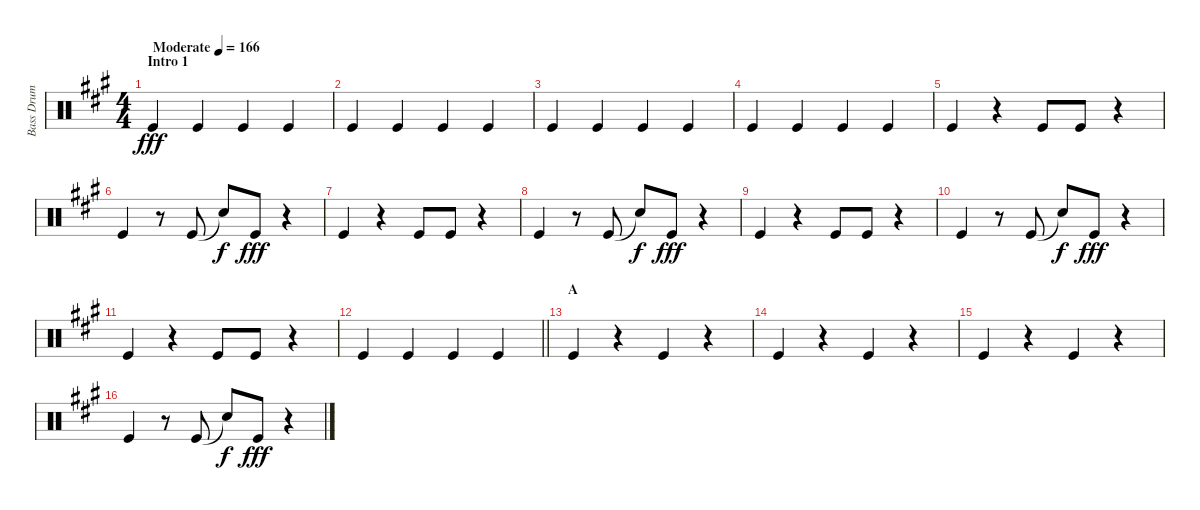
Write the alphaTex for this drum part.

\track ("Bass Drum" "Bass Drum") {instrument percussion}
\staff {score}
\articulation defaults
\ts (4 4)
\section ("" "Intro 1")
\tempo (166 "Moderate")
\clef neutral
\ks a "Kick (hit)".4{dy fff} "Kick (hit)".4 "Kick (hit)".4 "Kick (hit)".4
|
"Kick (hit)".4 "Kick (hit)".4 "Kick (hit)".4 "Kick (hit)".4 |
"Kick (hit)".4 "Kick (hit)".4 "Kick (hit)".4 "Kick (hit)".4 |
"Kick (hit)".4 "Kick (hit)".4 "Kick (hit)".4 "Kick (hit)".4 |
"Kick (hit)".4 r.4 "Kick (hit)".8 "Kick (hit)".8 r.4 |
"Kick (hit)".4 r.8 "Kick (hit)".8 "Snare (hit)"{t}.8{dy f} "Kick (hit)".8{dy fff} r.4 |
"Kick (hit)".4 r.4 "Kick (hit)".8 "Kick (hit)".8 r.4 |
"Kick (hit)".4 r.8 "Kick (hit)".8 "Snare (hit)"{t}.8{dy f} "Kick (hit)".8{dy fff} r.4 |
"Kick (hit)".4 r.4 "Kick (hit)".8 "Kick (hit)".8 r.4 |
"Kick (hit)".4 r.8 "Kick (hit)".8 "Snare (hit)"{t}.8{dy f} "Kick (hit)".8{dy fff} r.4 |
"Kick (hit)".4 r.4 "Kick (hit)".8 "Kick (hit)".8 r.4 |
\barLineRight lightlight "Kick (hit)".4 "Kick (hit)".4 "Kick (hit)".4 "Kick (hit)".4
|
\section ("" "A")
"Kick (hit)".4 r.4 "Kick (hit)".4 r.4 |
"Kick (hit)".4 r.4 "Kick (hit)".4 r.4 |
"Kick (hit)".4 r.4 "Kick (hit)".4 r.4 |
"Kick (hit)".4 r.8 "Kick (hit)".8 "Snare (hit)"{t}.8{dy f} "Kick (hit)".8{dy fff} r.4
